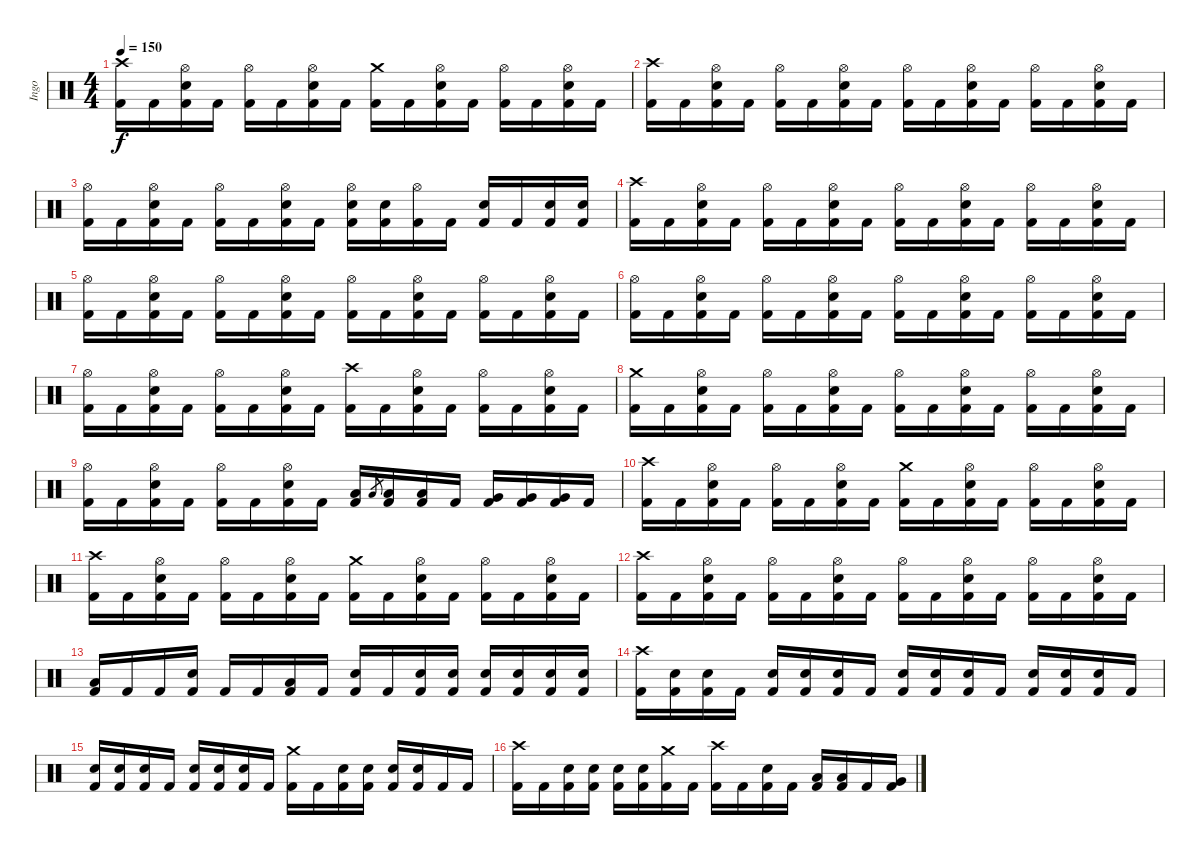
\track ("Ingo" "Ingo") {instrument percussion}
\staff {score}
\articulation defaults
\ts (4 4)
\tempo 150
\clef neutral
\ks c
("Crash high (hit)" "Kick (hit) 2").16{dy f} "Kick (hit) 2".16 ("Hi-Hat (open)" "Electric Snare (hit)" "Kick (hit) 2").16 "Kick (hit) 2".16 ("Hi-Hat (open)" "Kick (hit) 2").16 "Kick (hit) 2".16 ("Hi-Hat (open)" "Electric Snare (hit)" "Kick (hit) 2").16 "Kick (hit) 2".16 ("Crash medium (hit)" "Kick (hit) 2").16 "Kick (hit) 2".16 ("Hi-Hat (open)" "Electric Snare (hit)" "Kick (hit) 2").16 "Kick (hit) 2".16 ("Hi-Hat (open)" "Kick (hit) 2").16 "Kick (hit) 2".16 ("Hi-Hat (open)" "Electric Snare (hit)" "Kick (hit) 2").16 "Kick (hit) 2".16 |
("Crash high (hit)" "Kick (hit) 2").16 "Kick (hit) 2".16 ("Hi-Hat (open)" "Electric Snare (hit)" "Kick (hit) 2").16 "Kick (hit) 2".16 ("Hi-Hat (open)" "Kick (hit) 2").16 "Kick (hit) 2".16 ("Hi-Hat (open)" "Electric Snare (hit)" "Kick (hit) 2").16 "Kick (hit) 2".16 ("Hi-Hat (open)" "Kick (hit) 2").16 "Kick (hit) 2".16 ("Hi-Hat (open)" "Electric Snare (hit)" "Kick (hit) 2").16 "Kick (hit) 2".16 ("Hi-Hat (open)" "Kick (hit) 2").16 "Kick (hit) 2".16 ("Hi-Hat (open)" "Electric Snare (hit)" "Kick (hit) 2").16 "Kick (hit) 2".16 |
("Hi-Hat (open)" "Kick (hit) 2").16 "Kick (hit) 2".16 ("Hi-Hat (open)" "Electric Snare (hit)" "Kick (hit) 2").16 "Kick (hit) 2".16 ("Hi-Hat (open)" "Kick (hit) 2").16 "Kick (hit) 2".16 ("Hi-Hat (open)" "Electric Snare (hit)" "Kick (hit) 2").16 "Kick (hit) 2".16 ("Hi-Hat (open)" "Electric Snare (hit)" "Kick (hit) 2").16 ("Electric Snare (hit)" "Kick (hit) 2").16 ("Hi-Hat (open)" "Kick (hit) 2").16 "Kick (hit) 2".16 ("Electric Snare (hit)" "Kick (hit) 2").16 "Kick (hit) 2".16 ("Electric Snare (hit)" "Kick (hit) 2").16 ("Electric Snare (hit)" "Kick (hit) 2").16 |
("Crash high (hit)" "Kick (hit) 2").16 "Kick (hit) 2".16 ("Hi-Hat (open)" "Electric Snare (hit)" "Kick (hit) 2").16 "Kick (hit) 2".16 ("Hi-Hat (open)" "Kick (hit) 2").16 "Kick (hit) 2".16 ("Hi-Hat (open)" "Electric Snare (hit)" "Kick (hit) 2").16 "Kick (hit) 2".16 ("Hi-Hat (open)" "Kick (hit) 2").16 "Kick (hit) 2".16 ("Hi-Hat (open)" "Electric Snare (hit)" "Kick (hit) 2").16 "Kick (hit) 2".16 ("Hi-Hat (open)" "Kick (hit) 2").16 "Kick (hit) 2".16 ("Hi-Hat (open)" "Electric Snare (hit)" "Kick (hit) 2").16 "Kick (hit) 2".16 |
("Hi-Hat (open)" "Kick (hit) 2").16 "Kick (hit) 2".16 ("Hi-Hat (open)" "Electric Snare (hit)" "Kick (hit) 2").16 "Kick (hit) 2".16 ("Hi-Hat (open)" "Kick (hit) 2").16 "Kick (hit) 2".16 ("Hi-Hat (open)" "Electric Snare (hit)" "Kick (hit) 2").16 "Kick (hit) 2".16 ("Hi-Hat (open)" "Kick (hit) 2").16 "Kick (hit) 2".16 ("Hi-Hat (open)" "Electric Snare (hit)" "Kick (hit) 2").16 "Kick (hit) 2".16 ("Hi-Hat (open)" "Kick (hit) 2").16 "Kick (hit) 2".16 ("Hi-Hat (open)" "Electric Snare (hit)" "Kick (hit) 2").16 "Kick (hit) 2".16 |
("Hi-Hat (open)" "Kick (hit) 2").16 "Kick (hit) 2".16 ("Hi-Hat (open)" "Electric Snare (hit)" "Kick (hit) 2").16 "Kick (hit) 2".16 ("Hi-Hat (open)" "Kick (hit) 2").16 "Kick (hit) 2".16 ("Hi-Hat (open)" "Electric Snare (hit)" "Kick (hit) 2").16 "Kick (hit) 2".16 ("Hi-Hat (open)" "Kick (hit) 2").16 "Kick (hit) 2".16 ("Hi-Hat (open)" "Electric Snare (hit)" "Kick (hit) 2").16 "Kick (hit) 2".16 ("Hi-Hat (open)" "Kick (hit) 2").16 "Kick (hit) 2".16 ("Hi-Hat (open)" "Electric Snare (hit)" "Kick (hit) 2").16 "Kick (hit) 2".16 |
("Hi-Hat (open)" "Kick (hit) 2").16 "Kick (hit) 2".16 ("Hi-Hat (open)" "Electric Snare (hit)" "Kick (hit) 2").16 "Kick (hit) 2".16 ("Hi-Hat (open)" "Kick (hit) 2").16 "Kick (hit) 2".16 ("Hi-Hat (open)" "Electric Snare (hit)" "Kick (hit) 2").16 "Kick (hit) 2".16 ("Crash high (hit)" "Kick (hit) 2").16 "Kick (hit) 2".16 ("Hi-Hat (open)" "Electric Snare (hit)" "Kick (hit) 2").16 "Kick (hit) 2".16 ("Hi-Hat (open)" "Kick (hit) 2").16 "Kick (hit) 2".16 ("Hi-Hat (open)" "Electric Snare (hit)" "Kick (hit) 2").16 "Kick (hit) 2".16 |
("Crash medium (hit)" "Kick (hit) 2").16 "Kick (hit) 2".16 ("Hi-Hat (open)" "Electric Snare (hit)" "Kick (hit) 2").16 "Kick (hit) 2".16 ("Hi-Hat (open)" "Kick (hit) 2").16 "Kick (hit) 2".16 ("Hi-Hat (open)" "Electric Snare (hit)" "Kick (hit) 2").16 "Kick (hit) 2".16 ("Hi-Hat (open)" "Kick (hit) 2").16 "Kick (hit) 2".16 ("Hi-Hat (open)" "Electric Snare (hit)" "Kick (hit) 2").16 "Kick (hit) 2".16 ("Hi-Hat (open)" "Kick (hit) 2").16 "Kick (hit) 2".16 ("Hi-Hat (open)" "Electric Snare (hit)" "Kick (hit) 2").16 "Kick (hit) 2".16 |
("Hi-Hat (open)" "Kick (hit) 2").16 "Kick (hit) 2".16 ("Hi-Hat (open)" "Electric Snare (hit)" "Kick (hit) 2").16 "Kick (hit) 2".16 ("Hi-Hat (open)" "Kick (hit) 2").16 "Kick (hit) 2".16 ("Hi-Hat (open)" "Electric Snare (hit)" "Kick (hit) 2").16 "Kick (hit) 2".16 ("Low Tom (hit)" "Kick (hit) 2").16 "Low Tom (hit)".8{gr} ("Low Tom (hit)" "Kick (hit) 2").16 ("Low Tom (hit)" "Kick (hit) 2").16 "Kick (hit) 2".16 ("Very Low Tom (hit)" "Kick (hit) 2").16 ("Very Low Tom (hit)" "Kick (hit) 2").16 ("Very Low Tom (hit)" "Kick (hit) 2").16 "Kick (hit) 2".16 |
("Crash high (hit)" "Kick (hit) 2").16 "Kick (hit) 2".16 ("Hi-Hat (open)" "Electric Snare (hit)" "Kick (hit) 2").16 "Kick (hit) 2".16 ("Hi-Hat (open)" "Kick (hit) 2").16 "Kick (hit) 2".16 ("Hi-Hat (open)" "Electric Snare (hit)" "Kick (hit) 2").16 "Kick (hit) 2".16 ("Crash medium (hit)" "Kick (hit) 2").16 "Kick (hit) 2".16 ("Hi-Hat (open)" "Electric Snare (hit)" "Kick (hit) 2").16 "Kick (hit) 2".16 ("Hi-Hat (open)" "Kick (hit) 2").16 "Kick (hit) 2".16 ("Hi-Hat (open)" "Electric Snare (hit)" "Kick (hit) 2").16 "Kick (hit) 2".16 |
("Crash high (hit)" "Kick (hit) 2").16 "Kick (hit) 2".16 ("Hi-Hat (open)" "Electric Snare (hit)" "Kick (hit) 2").16 "Kick (hit) 2".16 ("Hi-Hat (open)" "Kick (hit) 2").16 "Kick (hit) 2".16 ("Hi-Hat (open)" "Electric Snare (hit)" "Kick (hit) 2").16 "Kick (hit) 2".16 ("Crash medium (hit)" "Kick (hit) 2").16 "Kick (hit) 2".16 ("Hi-Hat (open)" "Electric Snare (hit)" "Kick (hit) 2").16 "Kick (hit) 2".16 ("Hi-Hat (open)" "Kick (hit) 2").16 "Kick (hit) 2".16 ("Hi-Hat (open)" "Electric Snare (hit)" "Kick (hit) 2").16 "Kick (hit) 2".16 |
("Crash high (hit)" "Kick (hit) 2").16 "Kick (hit) 2".16 ("Hi-Hat (open)" "Electric Snare (hit)" "Kick (hit) 2").16 "Kick (hit) 2".16 ("Hi-Hat (open)" "Kick (hit) 2").16 "Kick (hit) 2".16 ("Hi-Hat (open)" "Electric Snare (hit)" "Kick (hit) 2").16 "Kick (hit) 2".16 ("Hi-Hat (open)" "Kick (hit) 2").16 "Kick (hit) 2".16 ("Hi-Hat (open)" "Electric Snare (hit)" "Kick (hit) 2").16 "Kick (hit) 2".16 ("Hi-Hat (open)" "Kick (hit) 2").16 "Kick (hit) 2".16 ("Hi-Hat (open)" "Electric Snare (hit)" "Kick (hit) 2").16 "Kick (hit) 2".16 |
("Low Floor Tom (hit)" "Kick (hit) 2").16 "Kick (hit) 2".16 "Kick (hit) 2".16 ("Electric Snare (hit)" "Kick (hit) 2").16 "Kick (hit) 2".16 "Kick (hit) 2".16 ("Low Floor Tom (hit)" "Kick (hit) 2").16 "Kick (hit) 2".16 ("Electric Snare (hit)" "Kick (hit) 2").16 "Kick (hit) 2".16 ("Electric Snare (hit)" "Kick (hit) 2").16 ("Electric Snare (hit)" "Kick (hit) 2").16 ("Electric Snare (hit)" "Kick (hit) 2").16 ("Electric Snare (hit)" "Kick (hit) 2").16 ("Electric Snare (hit)" "Kick (hit) 2").16 ("Electric Snare (hit)" "Kick (hit) 2").16 |
("Crash high (hit)" "Kick (hit) 2").16 ("Electric Snare (hit)" "Kick (hit) 2").16 ("Electric Snare (hit)" "Kick (hit) 2").16 "Kick (hit) 2".16 ("Electric Snare (hit)" "Kick (hit) 2").16 ("Electric Snare (hit)" "Kick (hit) 2").16 ("Electric Snare (hit)" "Kick (hit) 2").16 "Kick (hit) 2".16 ("Electric Snare (hit)" "Kick (hit) 2").16 ("Electric Snare (hit)" "Kick (hit) 2").16 ("Electric Snare (hit)" "Kick (hit) 2").16 "Kick (hit) 2".16 ("Electric Snare (hit)" "Kick (hit) 2").16 ("Electric Snare (hit)" "Kick (hit) 2").16 ("Electric Snare (hit)" "Kick (hit) 2").16 "Kick (hit) 2".16 |
("Electric Snare (hit)" "Kick (hit) 2").16 ("Electric Snare (hit)" "Kick (hit) 2").16 ("Electric Snare (hit)" "Kick (hit) 2").16 "Kick (hit) 2".16 ("Electric Snare (hit)" "Kick (hit) 2").16 ("Electric Snare (hit)" "Kick (hit) 2").16 ("Electric Snare (hit)" "Kick (hit) 2").16 "Kick (hit) 2".16 ("Crash medium (hit)" "Kick (hit) 2").16 "Kick (hit) 2".16 ("Electric Snare (hit)" "Kick (hit) 2").16 ("Electric Snare (hit)" "Kick (hit) 2").16 ("Electric Snare (hit)" "Kick (hit) 2").16 ("Electric Snare (hit)" "Kick (hit) 2").16 "Kick (hit) 2".16 "Kick (hit) 2".16 |
("Crash high (hit)" "Kick (hit) 2").16 "Kick (hit) 2".16 ("Electric Snare (hit)" "Kick (hit) 2").16 ("Electric Snare (hit)" "Kick (hit) 2").16 ("Electric Snare (hit)" "Kick (hit) 2").16 ("Electric Snare (hit)" "Kick (hit) 2").16 ("Crash medium (hit)" "Kick (hit) 2").16 "Kick (hit) 2".16 ("Crash high (hit)" "Kick (hit) 2").16 "Kick (hit) 2".16 ("Electric Snare (hit)" "Kick (hit) 2").16 "Kick (hit) 2".16 ("Low Tom (hit)" "Kick (hit) 2").16 ("Low Tom (hit)" "Kick (hit) 2").16 "Kick (hit) 2".16 ("Very Low Tom (hit)" "Kick (hit) 2").16
